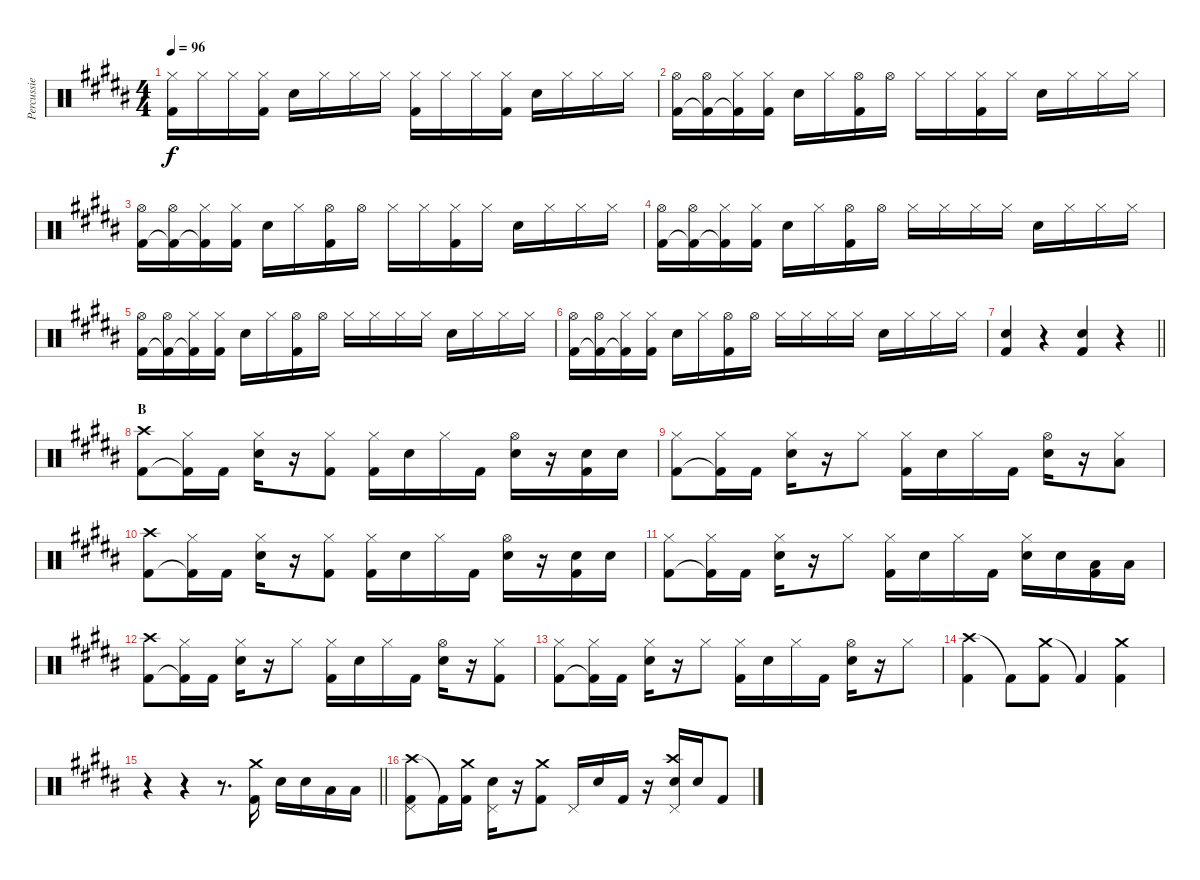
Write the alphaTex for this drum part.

\track ("Percussie" "Percussie") {instrument percussion}
\staff {score}
\articulation defaults
\ts (4 4)
\tempo 96
\clef neutral
\ks b
("Hi-Hat (closed)" "Kick (hit) 2").16{dy f} "Hi-Hat (closed)".16 "Hi-Hat (closed)".16 ("Hi-Hat (closed)" "Kick (hit) 2").16 "Electric Snare (hit)".16 "Hi-Hat (closed)".16 "Hi-Hat (closed)".16 "Hi-Hat (closed)".16 ("Hi-Hat (closed)" "Kick (hit) 2").16 "Hi-Hat (closed)".16 "Hi-Hat (closed)".16 ("Hi-Hat (closed)" "Kick (hit) 2").16 "Electric Snare (hit)".16 "Hi-Hat (closed)".16 "Hi-Hat (closed)".16 "Hi-Hat (closed)".16 |
("Hi-Hat (open)" "Kick (hit) 2").16 ("Hi-Hat (open)" "Kick (hit) 2"{t}).16 ("Hi-Hat (closed)" "Kick (hit) 2"{t}).16 ("Hi-Hat (closed)" "Kick (hit) 2").16 "Electric Snare (hit)".16 "Hi-Hat (closed)".16 ("Hi-Hat (open)" "Kick (hit) 2").16 "Hi-Hat (open)".16 "Hi-Hat (closed)".16 "Hi-Hat (closed)".16 ("Hi-Hat (closed)" "Kick (hit) 2").16 "Hi-Hat (closed)".16 "Electric Snare (hit)".16 "Hi-Hat (closed)".16 "Hi-Hat (closed)".16 "Hi-Hat (closed)".16 |
("Hi-Hat (open)" "Kick (hit) 2").16 ("Hi-Hat (open)" "Kick (hit) 2"{t}).16 ("Hi-Hat (closed)" "Kick (hit) 2"{t}).16 ("Hi-Hat (closed)" "Kick (hit) 2").16 "Electric Snare (hit)".16 "Hi-Hat (closed)".16 ("Hi-Hat (open)" "Kick (hit) 2").16 "Hi-Hat (open)".16 "Hi-Hat (closed)".16 "Hi-Hat (closed)".16 ("Hi-Hat (closed)" "Kick (hit) 2").16 "Hi-Hat (closed)".16 "Electric Snare (hit)".16 "Hi-Hat (closed)".16 "Hi-Hat (closed)".16 "Hi-Hat (closed)".16 |
("Hi-Hat (open)" "Kick (hit) 2").16 ("Hi-Hat (open)" "Kick (hit) 2"{t}).16 ("Hi-Hat (closed)" "Kick (hit) 2"{t}).16 ("Hi-Hat (closed)" "Kick (hit) 2").16 "Electric Snare (hit)".16 "Hi-Hat (closed)".16 ("Hi-Hat (open)" "Kick (hit) 2").16 "Hi-Hat (open)".16 "Hi-Hat (closed)".16 "Hi-Hat (closed)".16 "Hi-Hat (closed)".16 "Hi-Hat (closed)".16 "Electric Snare (hit)".16 "Hi-Hat (closed)".16 "Hi-Hat (closed)".16 "Hi-Hat (closed)".16 |
("Hi-Hat (open)" "Kick (hit) 2").16 ("Hi-Hat (open)" "Kick (hit) 2"{t}).16 ("Hi-Hat (closed)" "Kick (hit) 2"{t}).16 ("Hi-Hat (closed)" "Kick (hit) 2").16 "Electric Snare (hit)".16 "Hi-Hat (closed)".16 ("Hi-Hat (open)" "Kick (hit) 2").16 "Hi-Hat (open)".16 "Hi-Hat (closed)".16 "Hi-Hat (closed)".16 "Hi-Hat (closed)".16 "Hi-Hat (closed)".16 "Electric Snare (hit)".16 "Hi-Hat (closed)".16 "Hi-Hat (closed)".16 "Hi-Hat (closed)".16 |
("Hi-Hat (open)" "Kick (hit) 2").16 ("Hi-Hat (open)" "Kick (hit) 2"{t}).16 ("Hi-Hat (closed)" "Kick (hit) 2"{t}).16 ("Hi-Hat (closed)" "Kick (hit) 2").16 "Electric Snare (hit)".16 "Hi-Hat (closed)".16 ("Hi-Hat (open)" "Kick (hit) 2").16 "Hi-Hat (open)".16 "Hi-Hat (closed)".16 "Hi-Hat (closed)".16 "Hi-Hat (closed)".16 "Hi-Hat (closed)".16 "Electric Snare (hit)".16 "Hi-Hat (closed)".16 "Hi-Hat (closed)".16 "Hi-Hat (closed)".16 |
\barLineRight lightlight
("Electric Snare (hit)" "Kick (hit) 2").4 r.4 ("Electric Snare (hit)" "Kick (hit) 2").4 r.4 |
\section ("" "B")
("Crash high (hit)" "Kick (hit) 2").8 ("Hi-Hat (closed)" "Kick (hit) 2"{t}).16 "Kick (hit) 2".16 ("Hi-Hat (closed)" "Electric Snare (hit)").16 r.16 ("Hi-Hat (closed)" "Kick (hit) 2").8 ("Hi-Hat (closed)" "Kick (hit) 2").16 "Electric Snare (hit)".16 "Hi-Hat (closed)".16 "Kick (hit) 2".16 ("Hi-Hat (open)" "Electric Snare (hit)").16 r.16 ("Electric Snare (hit)" "Kick (hit) 2").16 "Electric Snare (hit)".16 |
("Hi-Hat (closed)" "Kick (hit) 2").8 ("Hi-Hat (closed)" "Kick (hit) 2"{t}).16 "Kick (hit) 2".16 ("Hi-Hat (closed)" "Electric Snare (hit)").16 r.16 "Hi-Hat (closed)".8 ("Hi-Hat (closed)" "Kick (hit) 2").16 "Electric Snare (hit)".16 "Hi-Hat (closed)".16 "Kick (hit) 2".16 ("Hi-Hat (open)" "Electric Snare (hit)").16 r.16 ("Hi-Hat (closed)" "Low Tom (hit)").8 |
("Crash high (hit)" "Kick (hit) 2").8 ("Hi-Hat (closed)" "Kick (hit) 2"{t}).16 "Kick (hit) 2".16 ("Hi-Hat (closed)" "Electric Snare (hit)").16 r.16 ("Hi-Hat (closed)" "Kick (hit) 2").8 ("Hi-Hat (closed)" "Kick (hit) 2").16 "Electric Snare (hit)".16 "Hi-Hat (closed)".16 "Kick (hit) 2".16 ("Hi-Hat (open)" "Electric Snare (hit)").16 r.16 ("Electric Snare (hit)" "Kick (hit) 2").16 "Electric Snare (hit)".16 |
("Hi-Hat (closed)" "Kick (hit) 2").8 ("Hi-Hat (closed)" "Kick (hit) 2"{t}).16 "Kick (hit) 2".16 ("Hi-Hat (closed)" "Electric Snare (hit)").16 r.16 "Hi-Hat (closed)".8 ("Hi-Hat (closed)" "Kick (hit) 2").16 "Electric Snare (hit)".16 "Hi-Hat (closed)".16 "Kick (hit) 2".16 ("Hi-Hat (closed)" "Electric Snare (hit)").16 "Electric Snare (hit)".16 ("Low Tom (hit)" "Kick (hit) 2").16 "Low Tom (hit)".16 |
("Crash high (hit)" "Kick (hit) 2").8 ("Hi-Hat (closed)" "Kick (hit) 2"{t}).16 "Kick (hit) 2".16 ("Hi-Hat (closed)" "Electric Snare (hit)").16 r.16 "Hi-Hat (closed)".8 ("Hi-Hat (closed)" "Kick (hit) 2").16 "Electric Snare (hit)".16 "Hi-Hat (closed)".16 "Kick (hit) 2".16 ("Hi-Hat (open)" "Electric Snare (hit)").16 r.16 ("Hi-Hat (closed)" "Kick (hit) 2").8 |
("Hi-Hat (closed)" "Kick (hit) 2").8 ("Hi-Hat (closed)" "Kick (hit) 2"{t}).16 "Kick (hit) 2".16 ("Hi-Hat (closed)" "Electric Snare (hit)").16 r.16 "Hi-Hat (closed)".8 ("Hi-Hat (closed)" "Kick (hit) 2").16 "Electric Snare (hit)".16 "Hi-Hat (closed)".16 "Kick (hit) 2".16 ("Hi-Hat (open)" "Electric Snare (hit)").16 r.16 "Hi-Hat (closed)".8 |
("Crash high (hit)" "Kick (hit) 2").4 "Kick (hit) 2"{t}.8 ("Crash medium (hit)" "Kick (hit) 2").8 "Kick (hit) 2"{t}.4 ("Crash medium (hit)" "Kick (hit) 2").4 |
\barLineRight lightlight
r.4 r.4 r.8{d} ("Crash medium (hit)" "Kick (hit) 2").16 "Electric Snare (hit)".16 "Electric Snare (hit)".16 "Low Tom (hit)".16 "Low Tom (hit)".16 |
("Crash high (hit)" "Kick (hit) 2" "Pedal Hi-Hat (hit)").8 "Kick (hit) 2"{t}.16 ("Crash medium (hit)" "Kick (hit) 2").16 ("Electric Snare (hit)" "Pedal Hi-Hat (hit)").16 r.16 ("Crash medium (hit)" "Kick (hit) 2").8 "Pedal Hi-Hat (hit)".16 "Electric Snare (hit)".16 "Kick (hit) 2".16 r.16 ("Crash high (hit)" "Electric Snare (hit)" "Pedal Hi-Hat (hit)").16 "Electric Snare (hit)".16 "Kick (hit) 2".8
